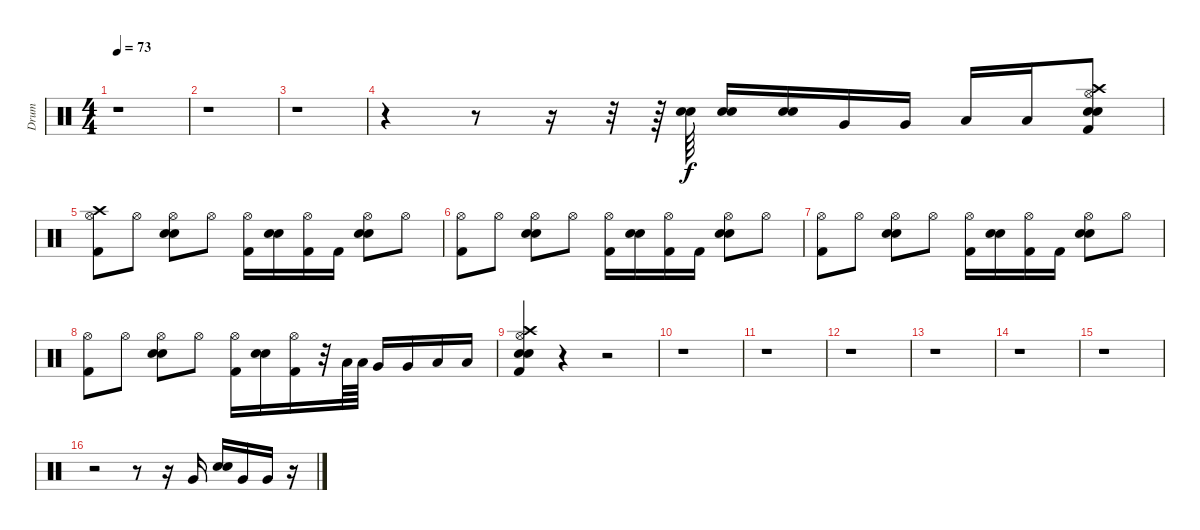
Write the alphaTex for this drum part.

\track ("Drum" "Drum") {instrument percussion}
\staff {score}
\articulation defaults
\ts (4 4)
\tempo 73
\clef neutral
\ks c
r.1{dy f} |
r.1 |
r.1 |
r.4 r.8 r.16 r.32 r.64 ("Electric Snare (hit)" "Electric Snare (hit)").64 ("Electric Snare (hit)" "Electric Snare (hit)").16 ("Electric Snare (hit)" "Electric Snare (hit)").16 "Very Low Tom (hit)".16 "Very Low Tom (hit)".16 "Low Floor Tom (hit)".16 "Low Floor Tom (hit)".16 ("Crash high (hit)" "Hi-Hat (open)" "Electric Snare (hit)" "Electric Snare (hit)" "Kick (hit) 2").8 |
("Crash high (hit)" "Hi-Hat (open)" "Kick (hit) 2").8 "Hi-Hat (open)".8 ("Hi-Hat (open)" "Electric Snare (hit)" "Electric Snare (hit)").8 "Hi-Hat (open)".8 ("Hi-Hat (open)" "Kick (hit) 2").16 ("Electric Snare (hit)" "Electric Snare (hit)").16 ("Hi-Hat (open)" "Kick (hit) 2").16 "Kick (hit) 2".16 ("Hi-Hat (open)" "Electric Snare (hit)" "Electric Snare (hit)").8 "Hi-Hat (open)".8 |
("Hi-Hat (open)" "Kick (hit) 2").8 "Hi-Hat (open)".8 ("Hi-Hat (open)" "Electric Snare (hit)" "Electric Snare (hit)").8 "Hi-Hat (open)".8 ("Hi-Hat (open)" "Kick (hit) 2").16 ("Electric Snare (hit)" "Electric Snare (hit)").16 ("Hi-Hat (open)" "Kick (hit) 2").16 "Kick (hit) 2".16 ("Hi-Hat (open)" "Electric Snare (hit)" "Electric Snare (hit)").8 "Hi-Hat (open)".8 |
("Hi-Hat (open)" "Kick (hit) 2").8 "Hi-Hat (open)".8 ("Hi-Hat (open)" "Electric Snare (hit)" "Electric Snare (hit)").8 "Hi-Hat (open)".8 ("Hi-Hat (open)" "Kick (hit) 2").16 ("Electric Snare (hit)" "Electric Snare (hit)").16 ("Hi-Hat (open)" "Kick (hit) 2").16 "Kick (hit) 2".16 ("Hi-Hat (open)" "Electric Snare (hit)" "Electric Snare (hit)").8 "Hi-Hat (open)".8 |
("Hi-Hat (open)" "Kick (hit) 2").8 "Hi-Hat (open)".8 ("Hi-Hat (open)" "Electric Snare (hit)" "Electric Snare (hit)").8 "Hi-Hat (open)".8 ("Hi-Hat (open)" "Kick (hit) 2").16 ("Electric Snare (hit)" "Electric Snare (hit)").16 ("Hi-Hat (open)" "Kick (hit) 2").16 r.32 "Low Tom (hit)".64 "Low Tom (hit)".64 "Very Low Tom (hit)".16 "Very Low Tom (hit)".16 "Low Floor Tom (hit)".16 "Low Floor Tom (hit)".16 |
("Crash high (hit)" "Hi-Hat (open)" "Electric Snare (hit)" "Electric Snare (hit)" "Kick (hit) 2").4 r.4 r.2 |
r.1 |
r.1 |
r.1 |
r.1 |
r.1 |
r.1 |
r.2 r.8 r.16 "Very Low Tom (hit)".16 ("Electric Snare (hit)" "Electric Snare (hit)").16 "Very Low Tom (hit)".16 "Very Low Tom (hit)".16 r.16
